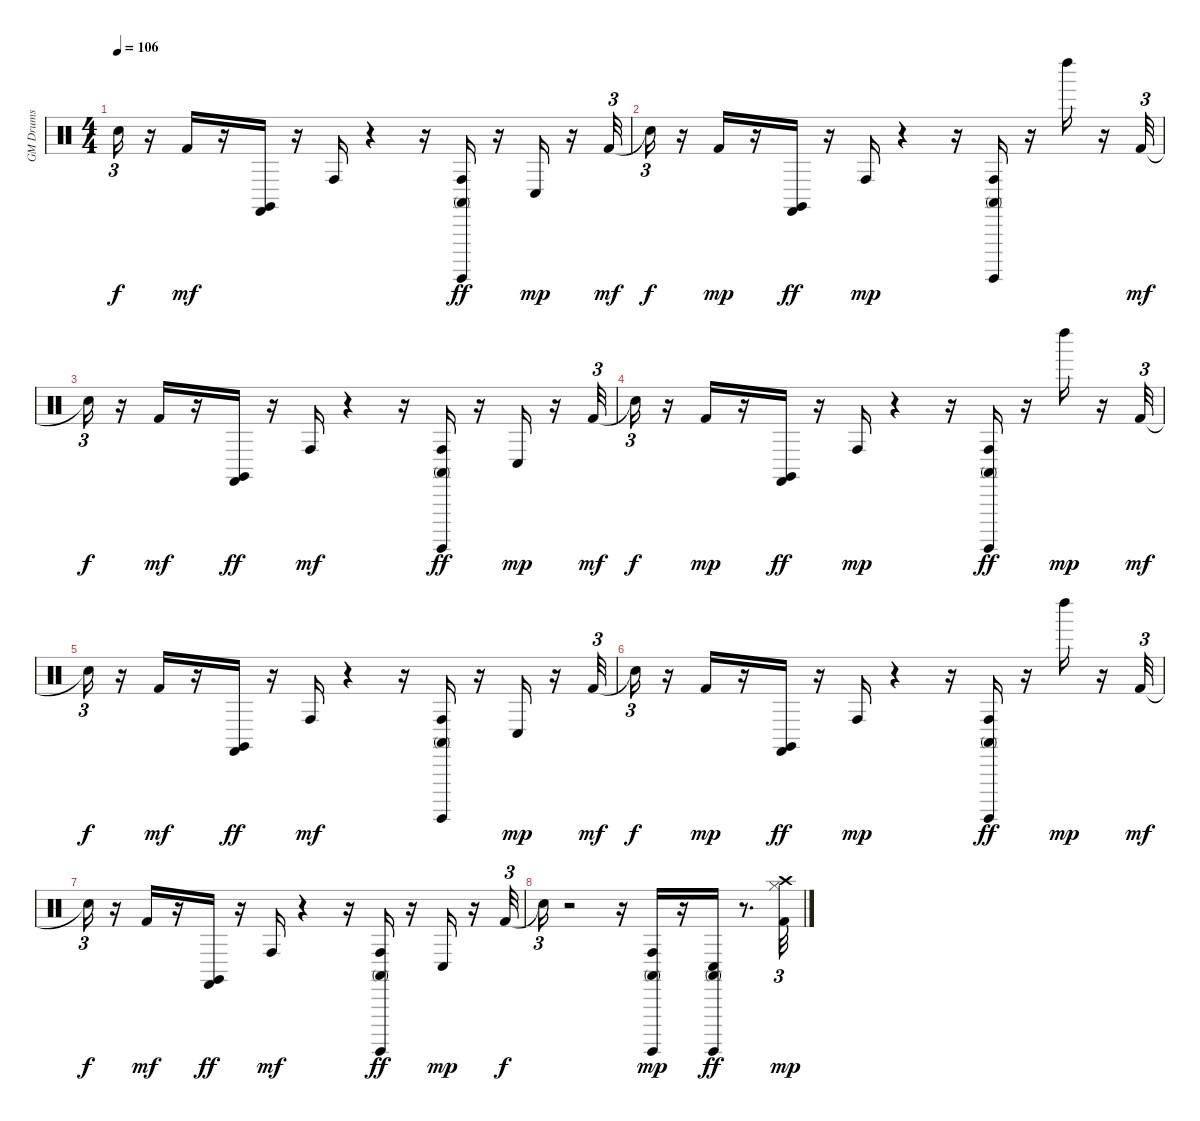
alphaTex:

\track ("GM Drums" "GM Drums") {instrument percussion}
\staff {score}
\articulation defaults
\ts (4 4)
\tempo 106
\clef neutral
\ks c "Snare (hit)"{t}.16{tu (3 2) dy f}
r.16 "Kick (hit) 2".16{dy mf} r.16 ("Claves (hit)" "Castanets (hit)").16 r.16 "Conga high (hit)".16 r.4 r.16 ("Conga high (mute)" "Conga high (hit)" "Surdo (hit)").16{dy ff} r.16 "Conga low (hit)".16{dy mp} r.16 "Kick (hit) 2".32{tu (3 2) dy mf} |
"Snare (hit)"{t}.16{tu (3 2) dy f} r.16 "Kick (hit) 2".16{dy mp} r.16 ("Claves (hit)" "Castanets (hit)").16{dy ff} r.16 "Conga high (hit)".16{dy mp} r.4 r.16 ("Conga high (mute)" "Conga high (hit)" "Surdo (hit)").16 r.16 "Left Maraca (hit)".16 r.16 "Kick (hit) 2".32{tu (3 2) dy mf} |
"Snare (hit)"{t}.16{tu (3 2) dy f} r.16 "Kick (hit) 2".16{dy mf} r.16 ("Claves (hit)" "Castanets (hit)").16{dy ff} r.16 "Conga high (hit)".16{dy mf} r.4 r.16 ("Conga high (mute)" "Conga high (hit)" "Surdo (hit)").16{dy ff} r.16 "Conga low (hit)".16{dy mp} r.16 "Kick (hit) 2".32{tu (3 2) dy mf} |
"Snare (hit)"{t}.16{tu (3 2) dy f} r.16 "Kick (hit) 2".16{dy mp} r.16 ("Claves (hit)" "Castanets (hit)").16{dy ff} r.16 "Conga high (hit)".16{dy mp} r.4 r.16 ("Conga high (mute)" "Conga high (hit)" "Surdo (hit)").16{dy ff} r.16 "Left Maraca (hit)".16{dy mp} r.16 "Kick (hit) 2".32{tu (3 2) dy mf} |
"Snare (hit)"{t}.16{tu (3 2) dy f} r.16 "Kick (hit) 2".16{dy mf} r.16 ("Claves (hit)" "Castanets (hit)").16{dy ff} r.16 "Conga high (hit)".16{dy mf} r.4 r.16 ("Conga high (mute)" "Conga high (hit)" "Surdo (hit)").16 r.16 "Conga low (hit)".16{dy mp} r.16 "Kick (hit) 2".32{tu (3 2) dy mf} |
"Snare (hit)"{t}.16{tu (3 2) dy f} r.16 "Kick (hit) 2".16{dy mp} r.16 ("Claves (hit)" "Castanets (hit)").16{dy ff} r.16 "Conga high (hit)".16{dy mp} r.4 r.16 ("Conga high (mute)" "Conga high (hit)" "Surdo (hit)").16{dy ff} r.16 "Left Maraca (hit)".16{dy mp} r.16 "Kick (hit) 2".32{tu (3 2) dy mf} |
"Snare (hit)"{t}.16{tu (3 2) dy f} r.16 "Kick (hit) 2".16{dy mf} r.16 ("Claves (hit)" "Castanets (hit)").16{dy ff} r.16 "Conga high (hit)".16{dy mf} r.4 r.16 ("Conga high (mute)" "Conga high (hit)" "Surdo (hit)").16{dy ff} r.16 "Conga low (hit)".16{dy mp} r.16 "Kick (hit) 2".32{tu (3 2) dy f} |
"Snare (hit)"{t}.16{tu (3 2)} r.2 r.16 ("Conga high (mute)" "Conga high (hit)" "Surdo (hit)").16{dy mp} r.16 ("Conga high (mute)" "Conga low (hit)" "Surdo (hit)").16{dy ff} r.8{d} ("Kick (hit) 2" "Hi-Hat (closed)" "Crash high (hit)").32{tu (3 2) dy mp}
